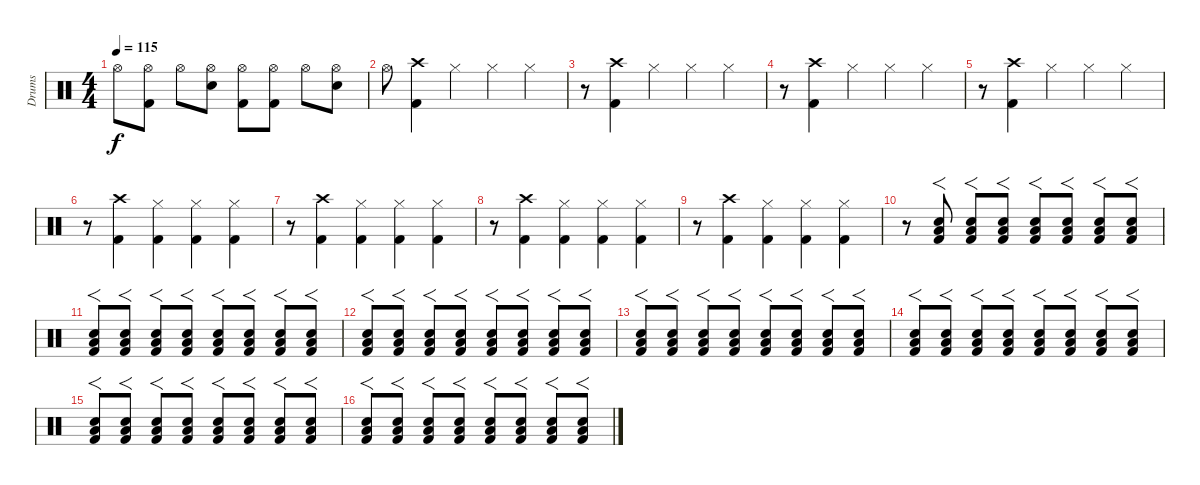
\track ("Drums" "Drums") {instrument percussion}
\staff {score}
\articulation defaults
\ts (4 4)
\tempo 115
\clef neutral
\ks c "Hi-Hat (open)".8{dy f}
("Kick (hit) 2" "Hi-Hat (open)").8 "Hi-Hat (open)".8 ("Snare (hit) 2" "Hi-Hat (open)").8 ("Kick (hit) 2" "Hi-Hat (open)").8 ("Kick (hit) 2" "Hi-Hat (open)").8 "Hi-Hat (open)".8 ("Snare (hit) 2" "Hi-Hat (open)").8 |
"Hi-Hat (open)".8 ("Kick (hit) 2" "Crash high (hit)").4 "Hi-Hat (closed)".4 "Hi-Hat (closed)".4 "Hi-Hat (closed)".4 |
r.8 ("Kick (hit) 2" "Crash high (hit)").4 "Hi-Hat (closed)".4 "Hi-Hat (closed)".4 "Hi-Hat (closed)".4 |
r.8 ("Kick (hit) 2" "Crash high (hit)").4 "Hi-Hat (closed)".4 "Hi-Hat (closed)".4 "Hi-Hat (closed)".4 |
r.8 ("Kick (hit) 2" "Crash high (hit)").4 "Hi-Hat (closed)".4 "Hi-Hat (closed)".4 "Hi-Hat (closed)".4 |
r.8 ("Kick (hit) 2" "Crash high (hit)").4 ("Kick (hit) 2" "Hi-Hat (closed)").4 ("Kick (hit) 2" "Hi-Hat (closed)").4 ("Kick (hit) 2" "Hi-Hat (closed)").4 |
r.8 ("Kick (hit) 2" "Crash high (hit)").4 ("Kick (hit) 2" "Hi-Hat (closed)").4 ("Kick (hit) 2" "Hi-Hat (closed)").4 ("Kick (hit) 2" "Hi-Hat (closed)").4 |
r.8 ("Kick (hit) 2" "Crash high (hit)").4 ("Kick (hit) 2" "Hi-Hat (closed)").4 ("Kick (hit) 2" "Hi-Hat (closed)").4 ("Kick (hit) 2" "Hi-Hat (closed)").4 |
r.8 ("Kick (hit) 2" "Crash high (hit)").4 ("Kick (hit) 2" "Hi-Hat (closed)").4 ("Kick (hit) 2" "Hi-Hat (closed)").4 ("Kick (hit) 2" "Hi-Hat (closed)").4 |
r.8 ("Kick (hit) 2" "Low Tom (hit)" "Snare (hit) 2").8{f} ("Kick (hit) 2" "Low Tom (hit)" "Snare (hit) 2").8{f} ("Kick (hit) 2" "Low Tom (hit)" "Snare (hit) 2").8{f} ("Kick (hit) 2" "Low Tom (hit)" "Snare (hit) 2").8{f} ("Kick (hit) 2" "Low Tom (hit)" "Snare (hit) 2").8{f} ("Kick (hit) 2" "Low Tom (hit)" "Snare (hit) 2").8{f} ("Kick (hit) 2" "Low Tom (hit)" "Snare (hit) 2").8{f} |
("Kick (hit) 2" "Low Tom (hit)" "Snare (hit) 2").8{f} ("Kick (hit) 2" "Low Tom (hit)" "Snare (hit) 2").8{f} ("Kick (hit) 2" "Low Tom (hit)" "Snare (hit) 2").8{f} ("Kick (hit) 2" "Low Tom (hit)" "Snare (hit) 2").8{f} ("Kick (hit) 2" "Low Tom (hit)" "Snare (hit) 2").8{f} ("Kick (hit) 2" "Low Tom (hit)" "Snare (hit) 2").8{f} ("Kick (hit) 2" "Low Tom (hit)" "Snare (hit) 2").8{f} ("Kick (hit) 2" "Low Tom (hit)" "Snare (hit) 2").8{f} |
("Kick (hit) 2" "Low Tom (hit)" "Snare (hit) 2").8{f} ("Kick (hit) 2" "Low Tom (hit)" "Snare (hit) 2").8{f} ("Kick (hit) 2" "Low Tom (hit)" "Snare (hit) 2").8{f} ("Kick (hit) 2" "Low Tom (hit)" "Snare (hit) 2").8{f} ("Kick (hit) 2" "Low Tom (hit)" "Snare (hit) 2").8{f} ("Kick (hit) 2" "Low Tom (hit)" "Snare (hit) 2").8{f} ("Kick (hit) 2" "Low Tom (hit)" "Snare (hit) 2").8{f} ("Kick (hit) 2" "Low Tom (hit)" "Snare (hit) 2").8{f} |
("Kick (hit) 2" "Low Tom (hit)" "Snare (hit) 2").8{f} ("Kick (hit) 2" "Low Tom (hit)" "Snare (hit) 2").8{f} ("Kick (hit) 2" "Low Tom (hit)" "Snare (hit) 2").8{f} ("Kick (hit) 2" "Low Tom (hit)" "Snare (hit) 2").8{f} ("Kick (hit) 2" "Low Tom (hit)" "Snare (hit) 2").8{f} ("Kick (hit) 2" "Low Tom (hit)" "Snare (hit) 2").8{f} ("Kick (hit) 2" "Low Tom (hit)" "Snare (hit) 2").8{f} ("Kick (hit) 2" "Low Tom (hit)" "Snare (hit) 2").8{f} |
("Kick (hit) 2" "Low Tom (hit)" "Snare (hit) 2").8{f} ("Kick (hit) 2" "Low Tom (hit)" "Snare (hit) 2").8{f} ("Kick (hit) 2" "Low Tom (hit)" "Snare (hit) 2").8{f} ("Kick (hit) 2" "Low Tom (hit)" "Snare (hit) 2").8{f} ("Kick (hit) 2" "Low Tom (hit)" "Snare (hit) 2").8{f} ("Kick (hit) 2" "Low Tom (hit)" "Snare (hit) 2").8{f} ("Kick (hit) 2" "Low Tom (hit)" "Snare (hit) 2").8{f} ("Kick (hit) 2" "Low Tom (hit)" "Snare (hit) 2").8{f} |
("Kick (hit) 2" "Low Tom (hit)" "Snare (hit) 2").8{f} ("Kick (hit) 2" "Low Tom (hit)" "Snare (hit) 2").8{f} ("Kick (hit) 2" "Low Tom (hit)" "Snare (hit) 2").8{f} ("Kick (hit) 2" "Low Tom (hit)" "Snare (hit) 2").8{f} ("Kick (hit) 2" "Low Tom (hit)" "Snare (hit) 2").8{f} ("Kick (hit) 2" "Low Tom (hit)" "Snare (hit) 2").8{f} ("Kick (hit) 2" "Low Tom (hit)" "Snare (hit) 2").8{f} ("Kick (hit) 2" "Low Tom (hit)" "Snare (hit) 2").8{f} |
("Kick (hit) 2" "Low Tom (hit)" "Snare (hit) 2").8{f} ("Kick (hit) 2" "Low Tom (hit)" "Snare (hit) 2").8{f} ("Kick (hit) 2" "Low Tom (hit)" "Snare (hit) 2").8{f} ("Kick (hit) 2" "Low Tom (hit)" "Snare (hit) 2").8{f} ("Kick (hit) 2" "Low Tom (hit)" "Snare (hit) 2").8{f} ("Kick (hit) 2" "Low Tom (hit)" "Snare (hit) 2").8{f} ("Kick (hit) 2" "Low Tom (hit)" "Snare (hit) 2").8{f} ("Kick (hit) 2" "Low Tom (hit)" "Snare (hit) 2").8{f}
